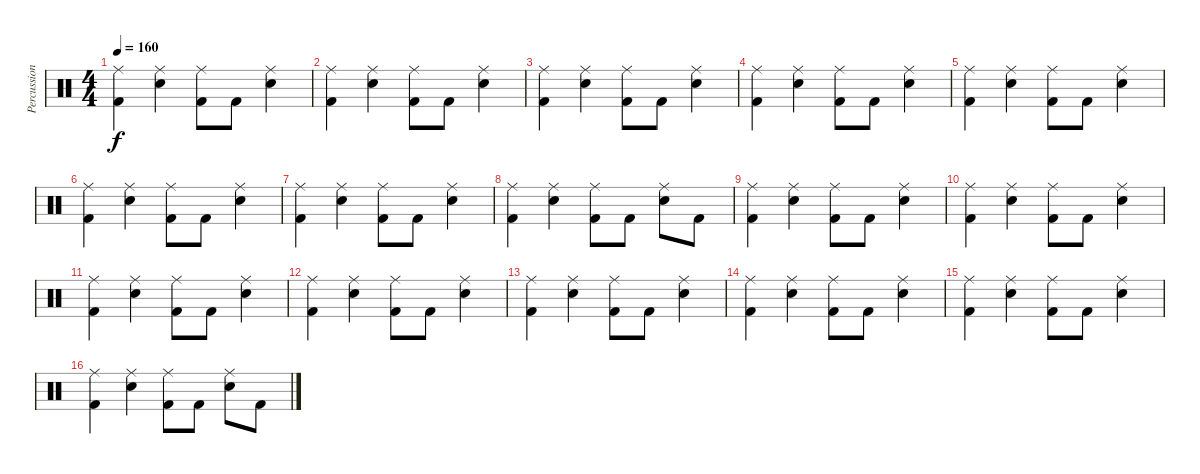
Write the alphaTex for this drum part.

\track ("Percussion" "Percussion") {instrument percussion}
\staff {score}
\articulation defaults
\ts (4 4)
\tempo 160
\clef neutral
\ks c
("Ride (middle)" "Kick (hit) 2").4{dy f} ("Ride (middle)" "Electric Snare (hit)").4 ("Ride (middle)" "Kick (hit) 2").8 "Kick (hit) 2".8 ("Ride (middle)" "Electric Snare (hit)").4 |
("Ride (middle)" "Kick (hit) 2").4 ("Ride (middle)" "Electric Snare (hit)").4 ("Ride (middle)" "Kick (hit) 2").8 "Kick (hit) 2".8 ("Ride (middle)" "Electric Snare (hit)").4 |
("Ride (middle)" "Kick (hit) 2").4 ("Ride (middle)" "Electric Snare (hit)").4 ("Ride (middle)" "Kick (hit) 2").8 "Kick (hit) 2".8 ("Ride (middle)" "Electric Snare (hit)").4 |
("Ride (middle)" "Kick (hit) 2").4 ("Ride (middle)" "Electric Snare (hit)").4 ("Ride (middle)" "Kick (hit) 2").8 "Kick (hit) 2".8 ("Ride (middle)" "Electric Snare (hit)").4 |
("Ride (middle)" "Kick (hit) 2").4 ("Ride (middle)" "Electric Snare (hit)").4 ("Ride (middle)" "Kick (hit) 2").8 "Kick (hit) 2".8 ("Ride (middle)" "Electric Snare (hit)").4 |
("Ride (middle)" "Kick (hit) 2").4 ("Ride (middle)" "Electric Snare (hit)").4 ("Ride (middle)" "Kick (hit) 2").8 "Kick (hit) 2".8 ("Ride (middle)" "Electric Snare (hit)").4 |
("Ride (middle)" "Kick (hit) 2").4 ("Ride (middle)" "Electric Snare (hit)").4 ("Ride (middle)" "Kick (hit) 2").8 "Kick (hit) 2".8 ("Ride (middle)" "Electric Snare (hit)").4 |
("Ride (middle)" "Kick (hit) 2").4 ("Ride (middle)" "Electric Snare (hit)").4 ("Ride (middle)" "Kick (hit) 2").8 "Kick (hit) 2".8 ("Ride (middle)" "Electric Snare (hit)").8 "Kick (hit) 2".8 |
("Ride (middle)" "Kick (hit) 2").4 ("Ride (middle)" "Electric Snare (hit)").4 ("Ride (middle)" "Kick (hit) 2").8 "Kick (hit) 2".8 ("Ride (middle)" "Electric Snare (hit)").4 |
("Ride (middle)" "Kick (hit) 2").4 ("Ride (middle)" "Electric Snare (hit)").4 ("Ride (middle)" "Kick (hit) 2").8 "Kick (hit) 2".8 ("Ride (middle)" "Electric Snare (hit)").4 |
("Ride (middle)" "Kick (hit) 2").4 ("Ride (middle)" "Electric Snare (hit)").4 ("Ride (middle)" "Kick (hit) 2").8 "Kick (hit) 2".8 ("Ride (middle)" "Electric Snare (hit)").4 |
("Ride (middle)" "Kick (hit) 2").4 ("Ride (middle)" "Electric Snare (hit)").4 ("Ride (middle)" "Kick (hit) 2").8 "Kick (hit) 2".8 ("Ride (middle)" "Electric Snare (hit)").4 |
("Ride (middle)" "Kick (hit) 2").4 ("Ride (middle)" "Electric Snare (hit)").4 ("Ride (middle)" "Kick (hit) 2").8 "Kick (hit) 2".8 ("Ride (middle)" "Electric Snare (hit)").4 |
("Ride (middle)" "Kick (hit) 2").4 ("Ride (middle)" "Electric Snare (hit)").4 ("Ride (middle)" "Kick (hit) 2").8 "Kick (hit) 2".8 ("Ride (middle)" "Electric Snare (hit)").4 |
("Ride (middle)" "Kick (hit) 2").4 ("Ride (middle)" "Electric Snare (hit)").4 ("Ride (middle)" "Kick (hit) 2").8 "Kick (hit) 2".8 ("Ride (middle)" "Electric Snare (hit)").4 |
("Ride (middle)" "Kick (hit) 2").4 ("Ride (middle)" "Electric Snare (hit)").4 ("Ride (middle)" "Kick (hit) 2").8 "Kick (hit) 2".8 ("Ride (middle)" "Electric Snare (hit)").8 "Kick (hit) 2".8
